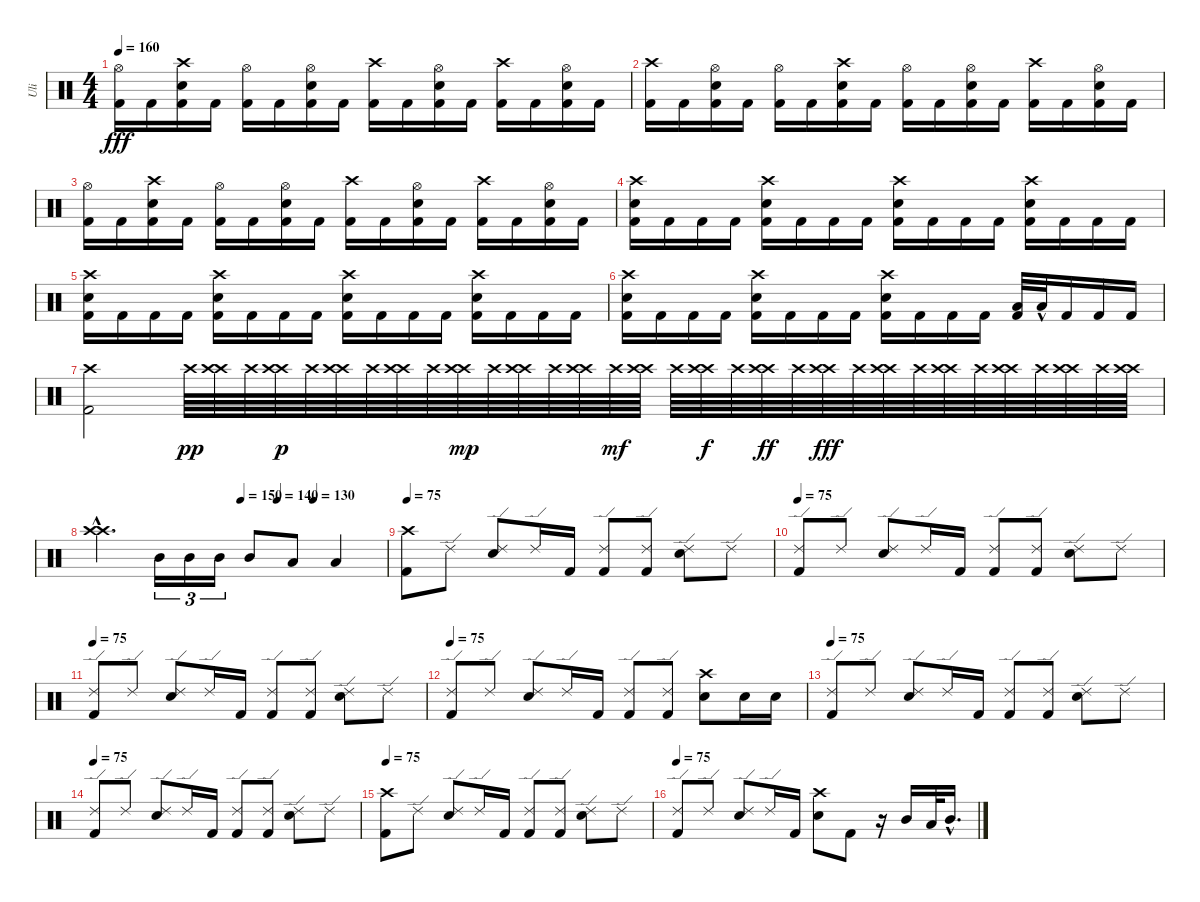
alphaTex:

\track ("Uli" "Uli") {instrument percussion}
\staff {score}
\articulation defaults
\ts (4 4)
\tempo 160
\clef neutral
\ks c
("Kick (hit) 2" "Hi-Hat (open)").16{dy fff} "Kick (hit) 2".16 ("Kick (hit) 2" "Electric Snare (hit)" "Crash high (hit)").16 "Kick (hit) 2".16 ("Kick (hit) 2" "Hi-Hat (open)").16 "Kick (hit) 2".16 ("Kick (hit) 2" "Electric Snare (hit)" "Hi-Hat (open)").16 "Kick (hit) 2".16 ("Kick (hit) 2" "Crash high (hit)").16 "Kick (hit) 2".16 ("Kick (hit) 2" "Electric Snare (hit)" "Hi-Hat (open)").16 "Kick (hit) 2".16 ("Kick (hit) 2" "Crash high (hit)").16 "Kick (hit) 2".16 ("Kick (hit) 2" "Electric Snare (hit)" "Hi-Hat (open)").16 "Kick (hit) 2".16 |
("Kick (hit) 2" "Crash high (hit)").16 "Kick (hit) 2".16 ("Kick (hit) 2" "Electric Snare (hit)" "Hi-Hat (open)").16 "Kick (hit) 2".16 ("Kick (hit) 2" "Hi-Hat (open)").16 "Kick (hit) 2".16 ("Kick (hit) 2" "Electric Snare (hit)" "Crash high (hit)").16 "Kick (hit) 2".16 ("Kick (hit) 2" "Hi-Hat (open)").16 "Kick (hit) 2".16 ("Kick (hit) 2" "Electric Snare (hit)" "Hi-Hat (open)").16 "Kick (hit) 2".16 ("Kick (hit) 2" "Crash high (hit)").16 "Kick (hit) 2".16 ("Kick (hit) 2" "Electric Snare (hit)" "Hi-Hat (open)").16 "Kick (hit) 2".16 |
("Kick (hit) 2" "Hi-Hat (open)").16 "Kick (hit) 2".16 ("Kick (hit) 2" "Electric Snare (hit)" "Crash high (hit)").16 "Kick (hit) 2".16 ("Kick (hit) 2" "Hi-Hat (open)").16 "Kick (hit) 2".16 ("Kick (hit) 2" "Electric Snare (hit)" "Hi-Hat (open)").16 "Kick (hit) 2".16 ("Kick (hit) 2" "Crash high (hit)").16 "Kick (hit) 2".16 ("Kick (hit) 2" "Electric Snare (hit)" "Hi-Hat (open)").16 "Kick (hit) 2".16 ("Kick (hit) 2" "Crash high (hit)").16 "Kick (hit) 2".16 ("Kick (hit) 2" "Electric Snare (hit)" "Hi-Hat (open)").16 "Kick (hit) 2".16 |
("Kick (hit) 2" "Electric Snare (hit)" "Crash high (hit)").16 "Kick (hit) 2".16 "Kick (hit) 2".16 "Kick (hit) 2".16 ("Kick (hit) 2" "Electric Snare (hit)" "Crash high (hit)").16 "Kick (hit) 2".16 "Kick (hit) 2".16 "Kick (hit) 2".16 ("Kick (hit) 2" "Electric Snare (hit)" "Crash high (hit)").16 "Kick (hit) 2".16 "Kick (hit) 2".16 "Kick (hit) 2".16 ("Kick (hit) 2" "Electric Snare (hit)" "Crash high (hit)").16 "Kick (hit) 2".16 "Kick (hit) 2".16 "Kick (hit) 2".16 |
("Kick (hit) 2" "Electric Snare (hit)" "Crash high (hit)").16 "Kick (hit) 2".16 "Kick (hit) 2".16 "Kick (hit) 2".16 ("Kick (hit) 2" "Electric Snare (hit)" "Crash high (hit)").16 "Kick (hit) 2".16 "Kick (hit) 2".16 "Kick (hit) 2".16 ("Kick (hit) 2" "Electric Snare (hit)" "Crash high (hit)").16 "Kick (hit) 2".16 "Kick (hit) 2".16 "Kick (hit) 2".16 ("Kick (hit) 2" "Electric Snare (hit)" "Crash high (hit)").16 "Kick (hit) 2".16 "Kick (hit) 2".16 "Kick (hit) 2".16 |
("Kick (hit) 2" "Electric Snare (hit)" "Crash high (hit)").16 "Kick (hit) 2".16 "Kick (hit) 2".16 "Kick (hit) 2".16 ("Kick (hit) 2" "Electric Snare (hit)" "Crash high (hit)").16 "Kick (hit) 2".16 "Kick (hit) 2".16 "Kick (hit) 2".16 ("Kick (hit) 2" "Electric Snare (hit)" "Crash high (hit)").16 "Kick (hit) 2".16 "Kick (hit) 2".16 "Kick (hit) 2".16 ("Kick (hit) 2" "Low Floor Tom (hit)").32 "Low Floor Tom (hit)"{hac}.32 "Kick (hit) 2".16 "Kick (hit) 2".16 "Kick (hit) 2".16 |
("Kick (hit) 2" "Crash high (hit)").2 "Crash high (hit)".64{dy pp} ("Crash high (hit)" "Crash high (hit)").64 "Crash high (hit)".64 ("Crash high (hit)" "Crash high (hit)").64{dy p} "Crash high (hit)".64 ("Crash high (hit)" "Crash high (hit)").64 "Crash high (hit)".64 ("Crash high (hit)" "Crash high (hit)").64 "Crash high (hit)".64 ("Crash high (hit)" "Crash high (hit)").64{dy mp} "Crash high (hit)".64 ("Crash high (hit)" "Crash high (hit)").64 "Crash high (hit)".64 ("Crash high (hit)" "Crash high (hit)").64 "Crash high (hit)".64{dy mf} ("Crash high (hit)" "Crash high (hit)").64 "Crash high (hit)".64 ("Crash high (hit)" "Crash high (hit)").64{dy f} "Crash high (hit)".64 ("Crash high (hit)" "Crash high (hit)").64{dy ff} "Crash high (hit)".64 ("Crash high (hit)" "Crash high (hit)").64{dy fff} "Crash high (hit)".64 ("Crash high (hit)" "Crash high (hit)").64 "Crash high (hit)".64 ("Crash high (hit)" "Crash high (hit)").64 "Crash high (hit)".64 ("Crash high (hit)" "Crash high (hit)").64 "Crash high (hit)".64 ("Crash high (hit)" "Crash high (hit)").64 "Crash high (hit)".64 ("Crash high (hit)" "Crash high (hit)").64 |
\tempo (150 0.5)
\tempo (140 0.625)
\tempo (130 0.75)
("Crash high (hit)" "Crash high (hit)"{hac}).4{d} "Mid Tom (hit)".16{tu (3 2)} "Mid Tom (hit)".16{tu (3 2)} "Mid Tom (hit)".16{tu (3 2)} "Mid Tom (hit)".8 "Low Tom (hit)".8 "Low Floor Tom (hit)".4 |
\tempo 75
("Kick (hit) 2" "Crash high (hit)").8 "Ride (edge) 2".8 ("Electric Snare (hit)" "Ride (edge) 2").8 "Ride (edge) 2".16 "Kick (hit) 2".16 ("Kick (hit) 2" "Ride (edge) 2").8 ("Kick (hit) 2" "Ride (edge) 2").8 ("Electric Snare (hit)" "Ride (edge) 2").8 "Ride (edge) 2".8 |
\tempo 75
("Kick (hit) 2" "Ride (edge) 2").8 "Ride (edge) 2".8 ("Electric Snare (hit)" "Ride (edge) 2").8 "Ride (edge) 2".16 "Kick (hit) 2".16 ("Kick (hit) 2" "Ride (edge) 2").8 ("Kick (hit) 2" "Ride (edge) 2").8 ("Electric Snare (hit)" "Ride (edge) 2").8 "Ride (edge) 2".8 |
\tempo 75
("Kick (hit) 2" "Ride (edge) 2").8 "Ride (edge) 2".8 ("Electric Snare (hit)" "Ride (edge) 2").8 "Ride (edge) 2".16 "Kick (hit) 2".16 ("Kick (hit) 2" "Ride (edge) 2").8 ("Kick (hit) 2" "Ride (edge) 2").8 ("Electric Snare (hit)" "Ride (edge) 2").8 "Ride (edge) 2".8 |
\tempo 75
("Kick (hit) 2" "Ride (edge) 2").8 "Ride (edge) 2".8 ("Electric Snare (hit)" "Ride (edge) 2").8 "Ride (edge) 2".16 "Kick (hit) 2".16 ("Kick (hit) 2" "Ride (edge) 2").8 ("Kick (hit) 2" "Ride (edge) 2").8 ("Crash high (hit)" "Electric Snare (hit)").8 "Electric Snare (hit)".16 "Electric Snare (hit)".16 |
\tempo 75
("Kick (hit) 2" "Ride (edge) 2").8 "Ride (edge) 2".8 ("Electric Snare (hit)" "Ride (edge) 2").8 "Ride (edge) 2".16 "Kick (hit) 2".16 ("Kick (hit) 2" "Ride (edge) 2").8 ("Kick (hit) 2" "Ride (edge) 2").8 ("Electric Snare (hit)" "Ride (edge) 2").8 "Ride (edge) 2".8 |
\tempo 75
("Kick (hit) 2" "Ride (edge) 2").8 "Ride (edge) 2".8 ("Electric Snare (hit)" "Ride (edge) 2").8 "Ride (edge) 2".16 "Kick (hit) 2".16 ("Kick (hit) 2" "Ride (edge) 2").8 ("Kick (hit) 2" "Ride (edge) 2").8 ("Electric Snare (hit)" "Ride (edge) 2").8 "Ride (edge) 2".8 |
\tempo 75
("Kick (hit) 2" "Crash high (hit)").8 "Ride (edge) 2".8 ("Electric Snare (hit)" "Ride (edge) 2").8 "Ride (edge) 2".16 "Kick (hit) 2".16 ("Kick (hit) 2" "Ride (edge) 2").8 ("Kick (hit) 2" "Ride (edge) 2").8 ("Electric Snare (hit)" "Ride (edge) 2").8 "Ride (edge) 2".8 |
\tempo 75
("Kick (hit) 2" "Ride (edge) 2").8 "Ride (edge) 2".8 ("Electric Snare (hit)" "Ride (edge) 2").8 "Ride (edge) 2".16 "Kick (hit) 2".16 ("Electric Snare (hit)" "Crash high (hit)").8 "Kick (hit) 2".8 r.16 "Mid Tom (hit)".16 "Low Tom (hit)".32 "Mid Tom (hit)"{hac}.16{d}
